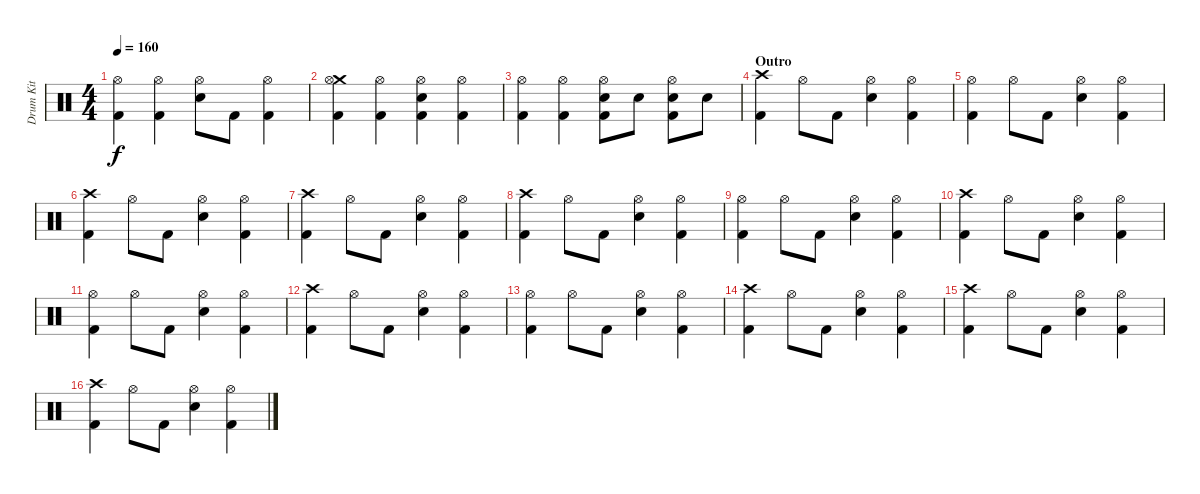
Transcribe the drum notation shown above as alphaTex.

\track ("Drum Kit" "Drum Kit") {instrument percussion}
\staff {score}
\articulation defaults
\ts (4 4)
\tempo 160
\clef neutral
\ks c
("Hi-Hat (open)" "Kick (hit) 2").4{dy f} ("Hi-Hat (open)" "Kick (hit) 2").4 ("Hi-Hat (open)" "Electric Snare (hit)").8 "Kick (hit) 2".8 ("Hi-Hat (open)" "Kick (hit) 2").4 |
("Crash medium (hit)" "Hi-Hat (open)" "Kick (hit) 2").4 ("Hi-Hat (open)" "Kick (hit) 2").4 ("Hi-Hat (open)" "Electric Snare (hit)" "Kick (hit) 2").4 ("Hi-Hat (open)" "Kick (hit) 2").4 |
("Hi-Hat (open)" "Kick (hit) 2").4 ("Hi-Hat (open)" "Kick (hit) 2").4 ("Hi-Hat (open)" "Electric Snare (hit)" "Kick (hit) 2").8 "Electric Snare (hit)".8 ("Hi-Hat (open)" "Electric Snare (hit)" "Kick (hit) 2").8 "Electric Snare (hit)".8 |
\section ("" "Outro")
("Crash high (hit)" "Kick (hit) 2").4 "Hi-Hat (open)".8 "Kick (hit) 2".8 ("Hi-Hat (open)" "Electric Snare (hit)").4 ("Hi-Hat (open)" "Kick (hit) 2").4 |
("Hi-Hat (open)" "Kick (hit) 2").4 "Hi-Hat (open)".8 "Kick (hit) 2".8 ("Hi-Hat (open)" "Electric Snare (hit)").4 ("Hi-Hat (open)" "Kick (hit) 2").4 |
("Crash high (hit)" "Kick (hit) 2").4 "Hi-Hat (open)".8 "Kick (hit) 2".8 ("Hi-Hat (open)" "Electric Snare (hit)").4 ("Hi-Hat (open)" "Kick (hit) 2").4 |
("Crash high (hit)" "Kick (hit) 2").4 "Hi-Hat (open)".8 "Kick (hit) 2".8 ("Hi-Hat (open)" "Electric Snare (hit)").4 ("Hi-Hat (open)" "Kick (hit) 2").4 |
("Crash high (hit)" "Kick (hit) 2").4 "Hi-Hat (open)".8 "Kick (hit) 2".8 ("Hi-Hat (open)" "Electric Snare (hit)").4 ("Hi-Hat (open)" "Kick (hit) 2").4 |
("Hi-Hat (open)" "Kick (hit) 2").4 "Hi-Hat (open)".8 "Kick (hit) 2".8 ("Hi-Hat (open)" "Electric Snare (hit)").4 ("Hi-Hat (open)" "Kick (hit) 2").4 |
("Crash high (hit)" "Kick (hit) 2").4 "Hi-Hat (open)".8 "Kick (hit) 2".8 ("Hi-Hat (open)" "Electric Snare (hit)").4 ("Hi-Hat (open)" "Kick (hit) 2").4 |
("Hi-Hat (open)" "Kick (hit) 2").4 "Hi-Hat (open)".8 "Kick (hit) 2".8 ("Hi-Hat (open)" "Electric Snare (hit)").4 ("Hi-Hat (open)" "Kick (hit) 2").4 |
("Crash high (hit)" "Kick (hit) 2").4 "Hi-Hat (open)".8 "Kick (hit) 2".8 ("Hi-Hat (open)" "Electric Snare (hit)").4 ("Hi-Hat (open)" "Kick (hit) 2").4 |
("Hi-Hat (open)" "Kick (hit) 2").4 "Hi-Hat (open)".8 "Kick (hit) 2".8 ("Hi-Hat (open)" "Electric Snare (hit)").4 ("Hi-Hat (open)" "Kick (hit) 2").4 |
("Crash high (hit)" "Kick (hit) 2").4 "Hi-Hat (open)".8 "Kick (hit) 2".8 ("Hi-Hat (open)" "Electric Snare (hit)").4 ("Hi-Hat (open)" "Kick (hit) 2").4 |
("Crash high (hit)" "Kick (hit) 2").4 "Hi-Hat (open)".8 "Kick (hit) 2".8 ("Hi-Hat (open)" "Electric Snare (hit)").4 ("Hi-Hat (open)" "Kick (hit) 2").4 |
("Crash high (hit)" "Kick (hit) 2").4 "Hi-Hat (open)".8 "Kick (hit) 2".8 ("Hi-Hat (open)" "Electric Snare (hit)").4 ("Hi-Hat (open)" "Kick (hit) 2").4
